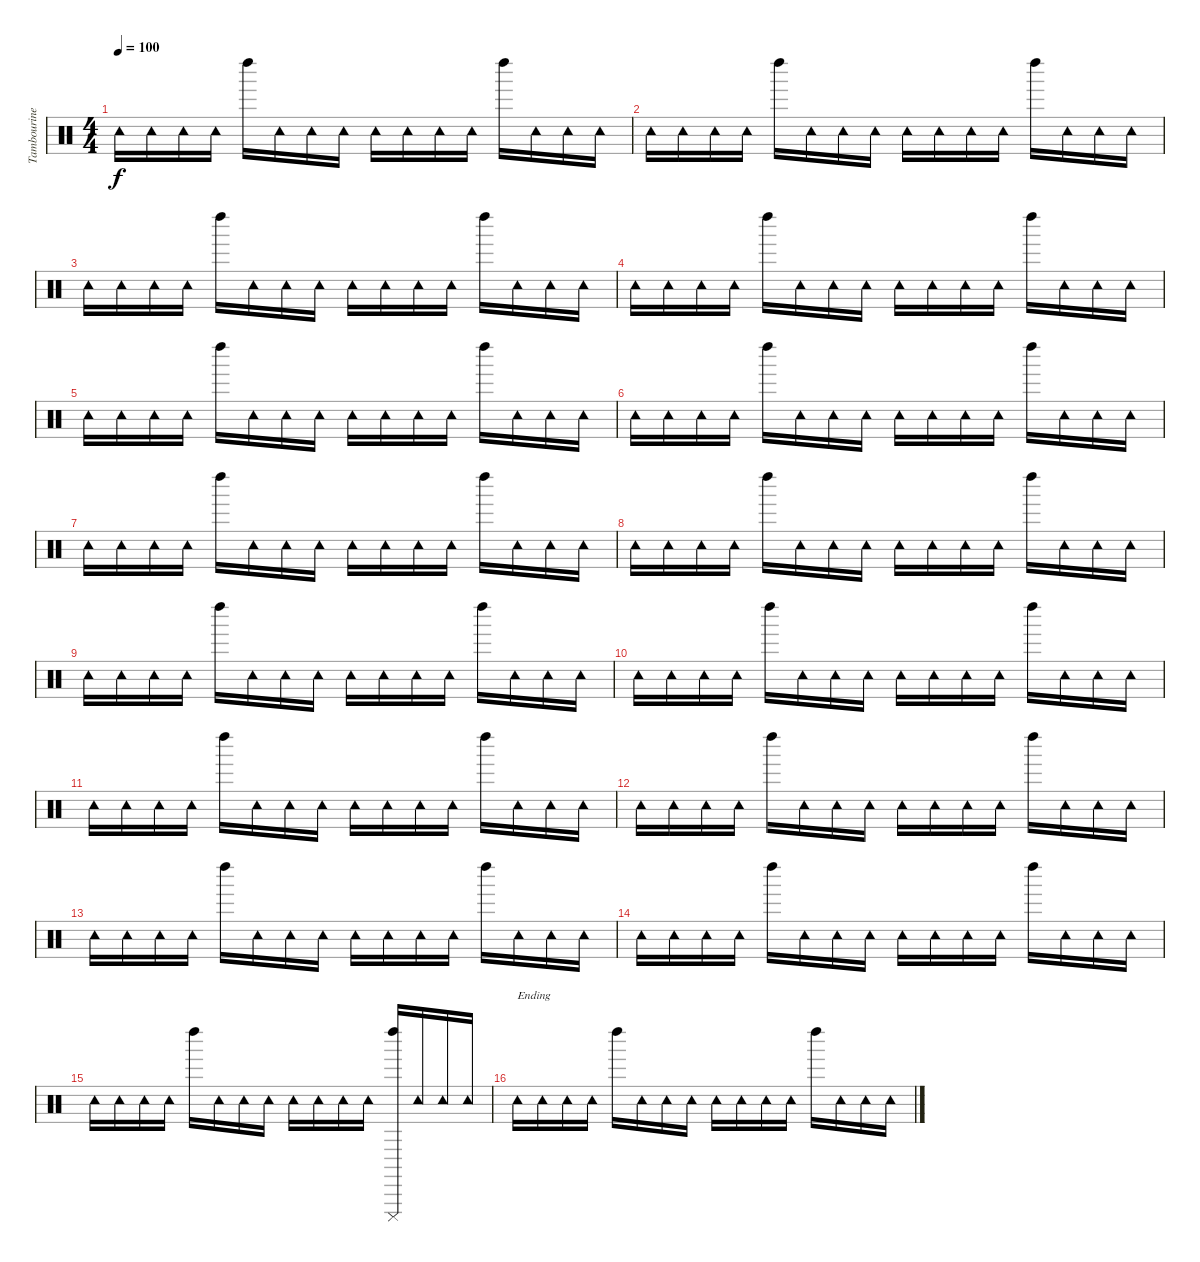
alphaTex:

\track ("Tambourine(Alan)" "Tambourine") {instrument percussion}
\staff {score}
\articulation defaults
\ts (4 4)
\tempo 100
\clef neutral
\ks c "Tambourine (hit)".16{dy f} "Tambourine (hit)".16 "Tambourine (hit)".16 "Tambourine (hit)".16 "Left Maraca (hit)".16 "Tambourine (hit)".16 "Tambourine (hit)".16 "Tambourine (hit)".16 "Tambourine (hit)".16 "Tambourine (hit)".16 "Tambourine (hit)".16 "Tambourine (hit)".16 "Left Maraca (hit)".16 "Tambourine (hit)".16 "Tambourine (hit)".16 "Tambourine (hit)".16
|
"Tambourine (hit)".16 "Tambourine (hit)".16 "Tambourine (hit)".16 "Tambourine (hit)".16 "Left Maraca (hit)".16 "Tambourine (hit)".16 "Tambourine (hit)".16 "Tambourine (hit)".16 "Tambourine (hit)".16 "Tambourine (hit)".16 "Tambourine (hit)".16 "Tambourine (hit)".16 "Left Maraca (hit)".16 "Tambourine (hit)".16 "Tambourine (hit)".16 "Tambourine (hit)".16 |
"Tambourine (hit)".16 "Tambourine (hit)".16 "Tambourine (hit)".16 "Tambourine (hit)".16 "Left Maraca (hit)".16 "Tambourine (hit)".16 "Tambourine (hit)".16 "Tambourine (hit)".16 "Tambourine (hit)".16 "Tambourine (hit)".16 "Tambourine (hit)".16 "Tambourine (hit)".16 "Left Maraca (hit)".16 "Tambourine (hit)".16 "Tambourine (hit)".16 "Tambourine (hit)".16 |
"Tambourine (hit)".16 "Tambourine (hit)".16 "Tambourine (hit)".16 "Tambourine (hit)".16 "Left Maraca (hit)".16 "Tambourine (hit)".16 "Tambourine (hit)".16 "Tambourine (hit)".16 "Tambourine (hit)".16 "Tambourine (hit)".16 "Tambourine (hit)".16 "Tambourine (hit)".16 "Left Maraca (hit)".16 "Tambourine (hit)".16 "Tambourine (hit)".16 "Tambourine (hit)".16 |
"Tambourine (hit)".16 "Tambourine (hit)".16 "Tambourine (hit)".16 "Tambourine (hit)".16 "Left Maraca (hit)".16 "Tambourine (hit)".16 "Tambourine (hit)".16 "Tambourine (hit)".16 "Tambourine (hit)".16 "Tambourine (hit)".16 "Tambourine (hit)".16 "Tambourine (hit)".16 "Left Maraca (hit)".16 "Tambourine (hit)".16 "Tambourine (hit)".16 "Tambourine (hit)".16 |
"Tambourine (hit)".16 "Tambourine (hit)".16 "Tambourine (hit)".16 "Tambourine (hit)".16 "Left Maraca (hit)".16 "Tambourine (hit)".16 "Tambourine (hit)".16 "Tambourine (hit)".16 "Tambourine (hit)".16 "Tambourine (hit)".16 "Tambourine (hit)".16 "Tambourine (hit)".16 "Left Maraca (hit)".16 "Tambourine (hit)".16 "Tambourine (hit)".16 "Tambourine (hit)".16 |
"Tambourine (hit)".16 "Tambourine (hit)".16 "Tambourine (hit)".16 "Tambourine (hit)".16 "Left Maraca (hit)".16 "Tambourine (hit)".16 "Tambourine (hit)".16 "Tambourine (hit)".16 "Tambourine (hit)".16 "Tambourine (hit)".16 "Tambourine (hit)".16 "Tambourine (hit)".16 "Left Maraca (hit)".16 "Tambourine (hit)".16 "Tambourine (hit)".16 "Tambourine (hit)".16 |
"Tambourine (hit)".16 "Tambourine (hit)".16 "Tambourine (hit)".16 "Tambourine (hit)".16 "Left Maraca (hit)".16 "Tambourine (hit)".16 "Tambourine (hit)".16 "Tambourine (hit)".16 "Tambourine (hit)".16 "Tambourine (hit)".16 "Tambourine (hit)".16 "Tambourine (hit)".16 "Left Maraca (hit)".16 "Tambourine (hit)".16 "Tambourine (hit)".16 "Tambourine (hit)".16 |
"Tambourine (hit)".16 "Tambourine (hit)".16 "Tambourine (hit)".16 "Tambourine (hit)".16 "Left Maraca (hit)".16 "Tambourine (hit)".16 "Tambourine (hit)".16 "Tambourine (hit)".16 "Tambourine (hit)".16 "Tambourine (hit)".16 "Tambourine (hit)".16 "Tambourine (hit)".16 "Left Maraca (hit)".16 "Tambourine (hit)".16 "Tambourine (hit)".16 "Tambourine (hit)".16 |
"Tambourine (hit)".16 "Tambourine (hit)".16 "Tambourine (hit)".16 "Tambourine (hit)".16 "Left Maraca (hit)".16 "Tambourine (hit)".16 "Tambourine (hit)".16 "Tambourine (hit)".16 "Tambourine (hit)".16 "Tambourine (hit)".16 "Tambourine (hit)".16 "Tambourine (hit)".16 "Left Maraca (hit)".16 "Tambourine (hit)".16 "Tambourine (hit)".16 "Tambourine (hit)".16 |
"Tambourine (hit)".16 "Tambourine (hit)".16 "Tambourine (hit)".16 "Tambourine (hit)".16 "Left Maraca (hit)".16 "Tambourine (hit)".16 "Tambourine (hit)".16 "Tambourine (hit)".16 "Tambourine (hit)".16 "Tambourine (hit)".16 "Tambourine (hit)".16 "Tambourine (hit)".16 "Left Maraca (hit)".16 "Tambourine (hit)".16 "Tambourine (hit)".16 "Tambourine (hit)".16 |
"Tambourine (hit)".16 "Tambourine (hit)".16 "Tambourine (hit)".16 "Tambourine (hit)".16 "Left Maraca (hit)".16 "Tambourine (hit)".16 "Tambourine (hit)".16 "Tambourine (hit)".16 "Tambourine (hit)".16 "Tambourine (hit)".16 "Tambourine (hit)".16 "Tambourine (hit)".16 "Left Maraca (hit)".16 "Tambourine (hit)".16 "Tambourine (hit)".16 "Tambourine (hit)".16 |
"Tambourine (hit)".16 "Tambourine (hit)".16 "Tambourine (hit)".16 "Tambourine (hit)".16 "Left Maraca (hit)".16 "Tambourine (hit)".16 "Tambourine (hit)".16 "Tambourine (hit)".16 "Tambourine (hit)".16 "Tambourine (hit)".16 "Tambourine (hit)".16 "Tambourine (hit)".16 "Left Maraca (hit)".16 "Tambourine (hit)".16 "Tambourine (hit)".16 "Tambourine (hit)".16 |
"Tambourine (hit)".16 "Tambourine (hit)".16 "Tambourine (hit)".16 "Tambourine (hit)".16 "Left Maraca (hit)".16 "Tambourine (hit)".16 "Tambourine (hit)".16 "Tambourine (hit)".16 "Tambourine (hit)".16 "Tambourine (hit)".16 "Tambourine (hit)".16 "Tambourine (hit)".16 "Left Maraca (hit)".16 "Tambourine (hit)".16 "Tambourine (hit)".16 "Tambourine (hit)".16 |
"Tambourine (hit)".16 "Tambourine (hit)".16 "Tambourine (hit)".16 "Tambourine (hit)".16 "Left Maraca (hit)".16 "Tambourine (hit)".16 "Tambourine (hit)".16 "Tambourine (hit)".16 "Tambourine (hit)".16 "Tambourine (hit)".16 "Tambourine (hit)".16 "Tambourine (hit)".16 ("Left Maraca (hit)" "Cuica (mute)").16 "Tambourine (hit)".16 "Tambourine (hit)".16 "Tambourine (hit)".16 |
"Tambourine (hit)".16{txt "Ending"} "Tambourine (hit)".16 "Tambourine (hit)".16 "Tambourine (hit)".16 "Left Maraca (hit)".16 "Tambourine (hit)".16 "Tambourine (hit)".16 "Tambourine (hit)".16 "Tambourine (hit)".16 "Tambourine (hit)".16 "Tambourine (hit)".16 "Tambourine (hit)".16 "Left Maraca (hit)".16 "Tambourine (hit)".16 "Tambourine (hit)".16 "Tambourine (hit)".16
